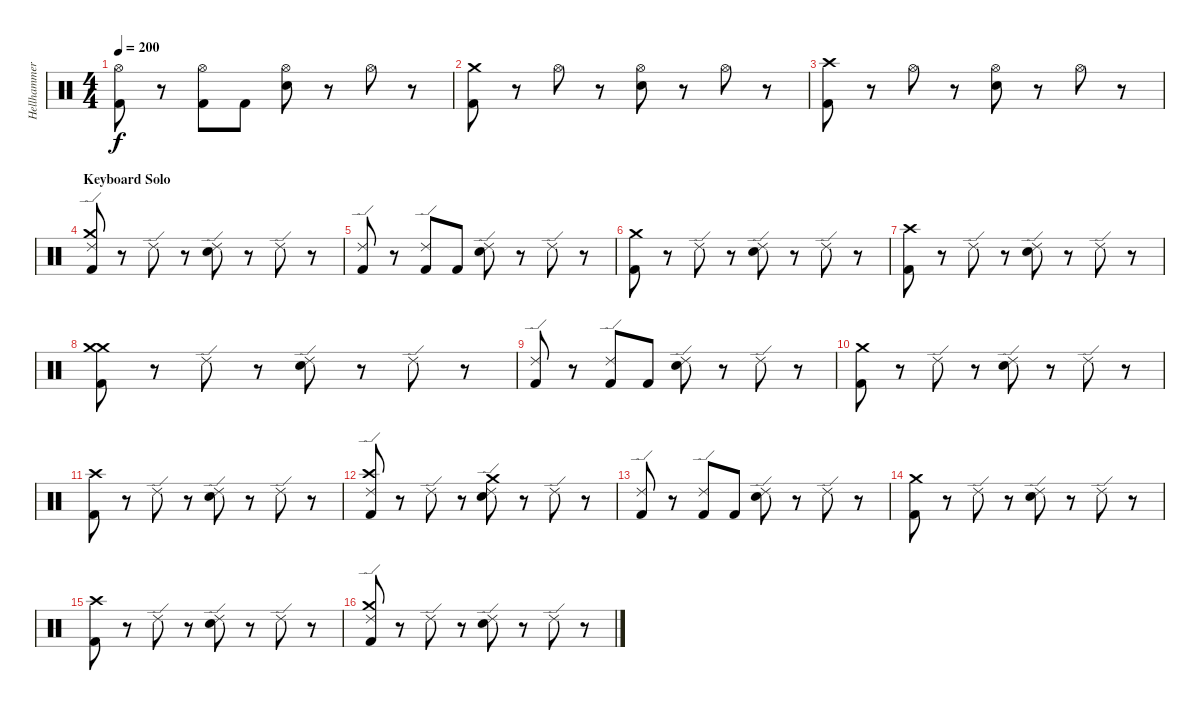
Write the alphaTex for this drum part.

\track ("Hellhammer" "Hellhammer") {instrument percussion}
\staff {score}
\articulation defaults
\ts (4 4)
\tempo 200
\clef neutral
\ks c
("Hi-Hat (open)" "Kick (hit) 2").8{dy f} r.8 ("Hi-Hat (open)" "Kick (hit) 2").8 "Kick (hit) 2".8 ("Hi-Hat (open)" "Electric Snare (hit)").8 r.8 "Hi-Hat (open)".8 r.8 |
("Crash medium (hit)" "Kick (hit) 2").8 r.8 "Hi-Hat (open)".8 r.8 ("Hi-Hat (open)" "Electric Snare (hit)").8 r.8 "Hi-Hat (open)".8 r.8 |
("Crash high (hit)" "Kick (hit) 2").8 r.8 "Hi-Hat (open)".8 r.8 ("Hi-Hat (open)" "Electric Snare (hit)").8 r.8 "Hi-Hat (open)".8 r.8 |
\section ("" "Keyboard Solo")
("Crash medium (hit)" "Ride (edge) 2" "Kick (hit) 2").8 r.8 "Ride (edge) 2".8 r.8 ("Ride (edge) 2" "Electric Snare (hit)").8 r.8 "Ride (edge) 2".8 r.8 |
("Ride (edge) 2" "Kick (hit) 2").8 r.8 ("Ride (edge) 2" "Kick (hit) 2").8 "Kick (hit) 2".8 ("Ride (edge) 2" "Electric Snare (hit)").8 r.8 "Ride (edge) 2".8 r.8 |
("Crash medium (hit)" "Kick (hit) 2").8 r.8 "Ride (edge) 2".8 r.8 ("Ride (edge) 2" "Electric Snare (hit)").8 r.8 "Ride (edge) 2".8 r.8 |
("Crash high (hit)" "Kick (hit) 2").8 r.8 "Ride (edge) 2".8 r.8 ("Ride (edge) 2" "Electric Snare (hit)").8 r.8 "Ride (edge) 2".8 r.8 |
("Crash medium (hit)" "Crash medium (hit)" "Kick (hit) 2").8 r.8 "Ride (edge) 2".8 r.8 ("Ride (edge) 2" "Electric Snare (hit)").8 r.8 "Ride (edge) 2".8 r.8 |
("Ride (edge) 2" "Kick (hit) 2").8 r.8 ("Ride (edge) 2" "Kick (hit) 2").8 "Kick (hit) 2".8 ("Ride (edge) 2" "Electric Snare (hit)").8 r.8 "Ride (edge) 2".8 r.8 |
("Crash medium (hit)" "Kick (hit) 2").8 r.8 "Ride (edge) 2".8 r.8 ("Ride (edge) 2" "Electric Snare (hit)").8 r.8 "Ride (edge) 2".8 r.8 |
("Crash high (hit)" "Kick (hit) 2").8 r.8 "Ride (edge) 2".8 r.8 ("Ride (edge) 2" "Electric Snare (hit)").8 r.8 "Ride (edge) 2".8 r.8 |
("Crash high (hit)" "Ride (edge) 2" "Kick (hit) 2").8 r.8 "Ride (edge) 2".8 r.8 ("Crash medium (hit)" "Ride (edge) 2" "Electric Snare (hit)").8 r.8 "Ride (edge) 2".8 r.8 |
("Ride (edge) 2" "Kick (hit) 2").8 r.8 ("Ride (edge) 2" "Kick (hit) 2").8 "Kick (hit) 2".8 ("Ride (edge) 2" "Electric Snare (hit)").8 r.8 "Ride (edge) 2".8 r.8 |
("Crash medium (hit)" "Kick (hit) 2").8 r.8 "Ride (edge) 2".8 r.8 ("Ride (edge) 2" "Electric Snare (hit)").8 r.8 "Ride (edge) 2".8 r.8 |
("Crash high (hit)" "Kick (hit) 2").8 r.8 "Ride (edge) 2".8 r.8 ("Ride (edge) 2" "Electric Snare (hit)").8 r.8 "Ride (edge) 2".8 r.8 |
("Crash medium (hit)" "Ride (edge) 2" "Kick (hit) 2").8 r.8 "Ride (edge) 2".8 r.8 ("Ride (edge) 2" "Electric Snare (hit)").8 r.8 "Ride (edge) 2".8 r.8
